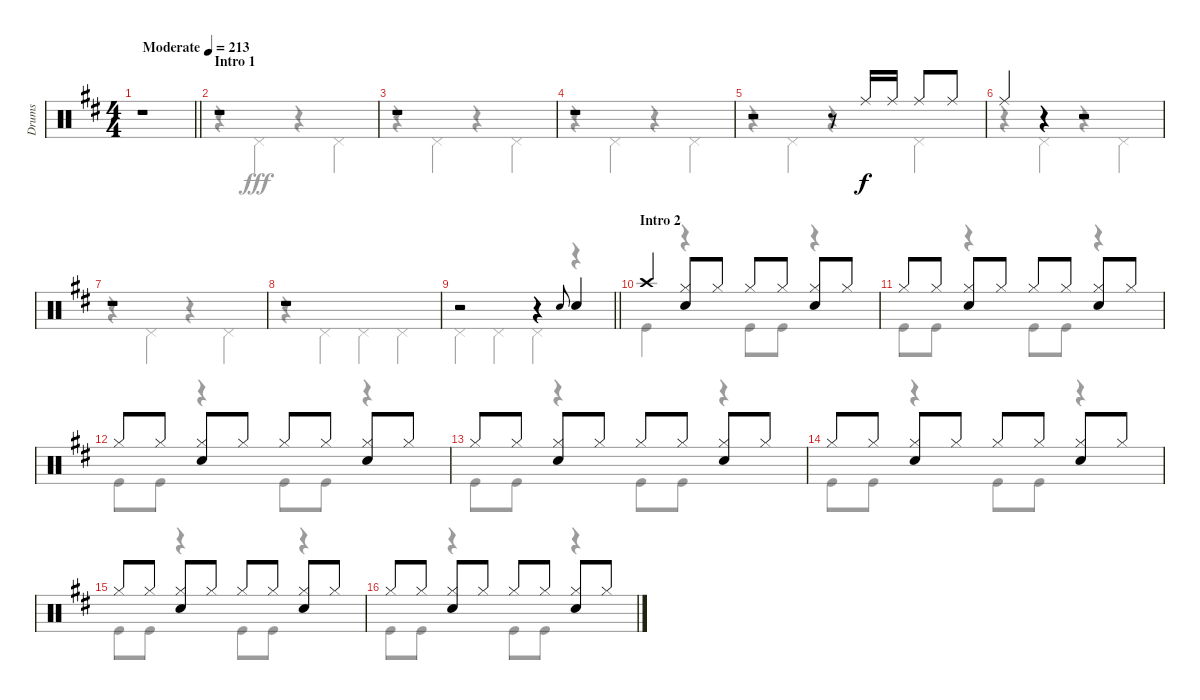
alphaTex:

\track ("Drums" "Drums") {instrument percussion}
\staff {score}
\articulation defaults
\voice
\ts (4 4)
\tempo (213 "Moderate")
\clef neutral
\barLineRight lightlight
\ks d
r.1{dy f} |
\section ("" "Intro 1")
r.1 |
r.1 |
r.1 |
r.2 r.8 "Ride (middle)".16 "Ride (middle)".16 "Ride (middle)".8 "Ride (middle)".8 |
"Ride (middle)".4 r.4 r.2 |
r.1 |
r.1 |
\barLineRight lightlight
r.2 r.4 "Snare (hit) 2".8{gr onbeat} "Snare (hit) 2".4 |
\section ("" "Intro 2")
"Crash high (hit)".4 ("Hi-Hat (closed)" "Snare (hit) 2").8 "Hi-Hat (closed)".8 "Hi-Hat (closed)".8 "Hi-Hat (closed)".8 ("Hi-Hat (closed)" "Snare (hit) 2").8 "Hi-Hat (closed)".8 |
"Hi-Hat (closed)".8 "Hi-Hat (closed)".8 ("Hi-Hat (closed)" "Snare (hit) 2").8 "Hi-Hat (closed)".8 "Hi-Hat (closed)".8 "Hi-Hat (closed)".8 ("Hi-Hat (closed)" "Snare (hit) 2").8 "Hi-Hat (closed)".8 |
"Hi-Hat (closed)".8 "Hi-Hat (closed)".8 ("Hi-Hat (closed)" "Snare (hit) 2").8 "Hi-Hat (closed)".8 "Hi-Hat (closed)".8 "Hi-Hat (closed)".8 ("Hi-Hat (closed)" "Snare (hit) 2").8 "Hi-Hat (closed)".8 |
"Hi-Hat (closed)".8 "Hi-Hat (closed)".8 ("Hi-Hat (closed)" "Snare (hit) 2").8 "Hi-Hat (closed)".8 "Hi-Hat (closed)".8 "Hi-Hat (closed)".8 ("Hi-Hat (closed)" "Snare (hit) 2").8 "Hi-Hat (closed)".8 |
"Hi-Hat (closed)".8 "Hi-Hat (closed)".8 ("Hi-Hat (closed)" "Snare (hit) 2").8 "Hi-Hat (closed)".8 "Hi-Hat (closed)".8 "Hi-Hat (closed)".8 ("Hi-Hat (closed)" "Snare (hit) 2").8 "Hi-Hat (closed)".8 |
"Hi-Hat (closed)".8 "Hi-Hat (closed)".8 ("Hi-Hat (closed)" "Snare (hit) 2").8 "Hi-Hat (closed)".8 "Hi-Hat (closed)".8 "Hi-Hat (closed)".8 ("Hi-Hat (closed)" "Snare (hit) 2").8 "Hi-Hat (closed)".8 |
"Hi-Hat (closed)".8 "Hi-Hat (closed)".8 ("Hi-Hat (closed)" "Snare (hit) 2").8 "Hi-Hat (closed)".8 "Hi-Hat (closed)".8 "Hi-Hat (closed)".8 ("Hi-Hat (closed)" "Snare (hit) 2").8 "Hi-Hat (closed)".8
\voice
\clef neutral
\ottava regular
\simile none
\barLineRight lightlight
\ks d
r.1{dy fff} |
r.4 "Pedal Hi-Hat (hit)".4 r.4 "Pedal Hi-Hat (hit)".4 |
r.4 "Pedal Hi-Hat (hit)".4 r.4 "Pedal Hi-Hat (hit)".4 |
r.4 "Pedal Hi-Hat (hit)".4 r.4 "Pedal Hi-Hat (hit)".4 |
r.4 "Pedal Hi-Hat (hit)".4 r.4 "Pedal Hi-Hat (hit)".4 |
r.4 "Pedal Hi-Hat (hit)".4 r.4 "Pedal Hi-Hat (hit)".4 |
r.4 "Pedal Hi-Hat (hit)".4 r.4 "Pedal Hi-Hat (hit)".4 |
r.4 "Pedal Hi-Hat (hit)".4 "Pedal Hi-Hat (hit)".4 "Pedal Hi-Hat (hit)".4 |
\barLineRight lightlight "Pedal Hi-Hat (hit)".4 "Pedal Hi-Hat (hit)".4 "Pedal Hi-Hat (hit)".4
r.4 |
"Kick (hit)".4 r.4 "Kick (hit)".8 "Kick (hit)".8 r.4 |
"Kick (hit)".8 "Kick (hit)".8 r.4 "Kick (hit)".8 "Kick (hit)".8 r.4 |
"Kick (hit)".8 "Kick (hit)".8 r.4 "Kick (hit)".8 "Kick (hit)".8 r.4 |
"Kick (hit)".8 "Kick (hit)".8 r.4 "Kick (hit)".8 "Kick (hit)".8 r.4 |
"Kick (hit)".8 "Kick (hit)".8 r.4 "Kick (hit)".8 "Kick (hit)".8 r.4 |
"Kick (hit)".8 "Kick (hit)".8 r.4 "Kick (hit)".8 "Kick (hit)".8 r.4 |
"Kick (hit)".8 "Kick (hit)".8 r.4 "Kick (hit)".8 "Kick (hit)".8 r.4
